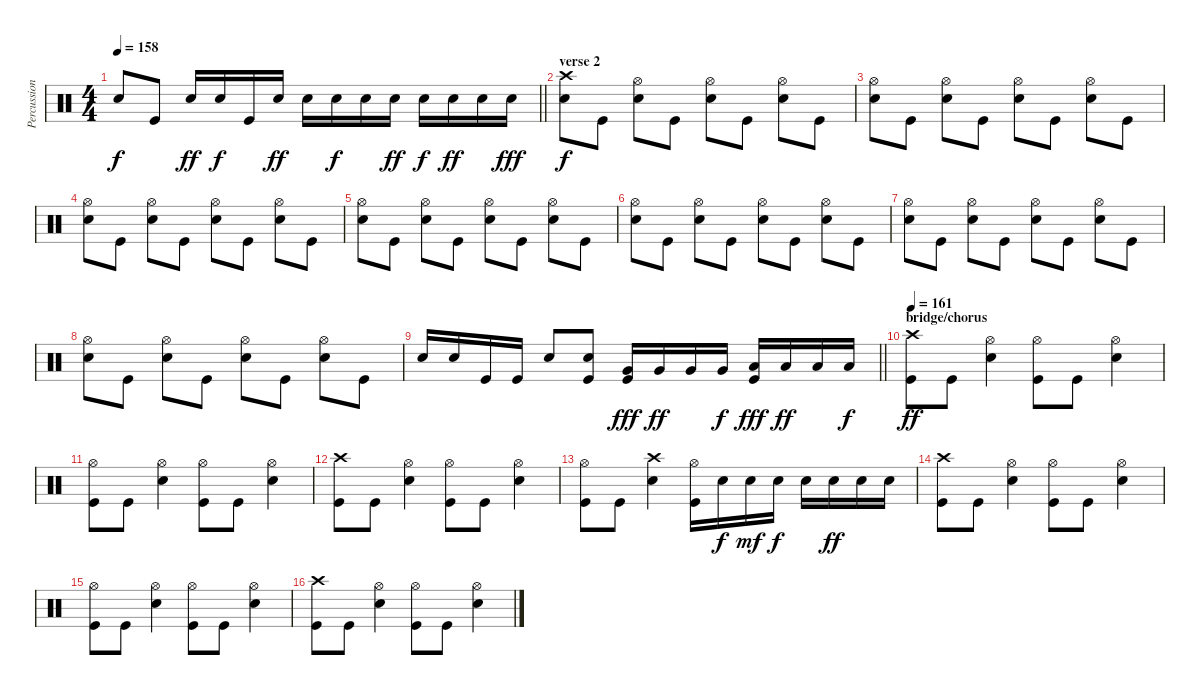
\track ("Percussion" "Percussion") {instrument percussion}
\staff {score}
\articulation defaults
\ts (4 4)
\tempo 158
\clef neutral
\barLineRight lightlight
\ks c "Snare (hit) 2".8{dy f} "Kick (hit)".8 "Snare (hit) 2".16{dy ff} "Snare (hit) 2".16{dy f} "Kick (hit)".16 "Snare (hit) 2".16{dy ff} "Snare (hit) 2".16 "Snare (hit) 2".16{dy f} "Snare (hit) 2".16 "Snare (hit) 2".16{dy ff} "Snare (hit) 2".16{dy f} "Snare (hit) 2".16{dy ff} "Snare (hit) 2".16 "Snare (hit) 2".16{dy fff}
|
\section ("" "verse 2")
("Crash high (hit)" "Snare (hit) 2").8{dy f} "Kick (hit)".8 ("Hi-Hat (open)" "Snare (hit) 2").8 "Kick (hit)".8 ("Hi-Hat (open)" "Snare (hit) 2").8 "Kick (hit)".8 ("Hi-Hat (open)" "Snare (hit) 2").8 "Kick (hit)".8 |
("Hi-Hat (open)" "Snare (hit) 2").8 "Kick (hit)".8 ("Hi-Hat (open)" "Snare (hit) 2").8 "Kick (hit)".8 ("Hi-Hat (open)" "Snare (hit) 2").8 "Kick (hit)".8 ("Hi-Hat (open)" "Snare (hit) 2").8 "Kick (hit)".8 |
("Hi-Hat (open)" "Snare (hit) 2").8 "Kick (hit)".8 ("Hi-Hat (open)" "Snare (hit) 2").8 "Kick (hit)".8 ("Hi-Hat (open)" "Snare (hit) 2").8 "Kick (hit)".8 ("Hi-Hat (open)" "Snare (hit) 2").8 "Kick (hit)".8 |
("Hi-Hat (open)" "Snare (hit) 2").8 "Kick (hit)".8 ("Hi-Hat (open)" "Snare (hit) 2").8 "Kick (hit)".8 ("Hi-Hat (open)" "Snare (hit) 2").8 "Kick (hit)".8 ("Hi-Hat (open)" "Snare (hit) 2").8 "Kick (hit)".8 |
("Hi-Hat (open)" "Snare (hit) 2").8 "Kick (hit)".8 ("Hi-Hat (open)" "Snare (hit) 2").8 "Kick (hit)".8 ("Hi-Hat (open)" "Snare (hit) 2").8 "Kick (hit)".8 ("Hi-Hat (open)" "Snare (hit) 2").8 "Kick (hit)".8 |
("Hi-Hat (open)" "Snare (hit) 2").8 "Kick (hit)".8 ("Hi-Hat (open)" "Snare (hit) 2").8 "Kick (hit)".8 ("Hi-Hat (open)" "Snare (hit) 2").8 "Kick (hit)".8 ("Hi-Hat (open)" "Snare (hit) 2").8 "Kick (hit)".8 |
("Hi-Hat (open)" "Snare (hit) 2").8 "Kick (hit)".8 ("Hi-Hat (open)" "Snare (hit) 2").8 "Kick (hit)".8 ("Hi-Hat (open)" "Snare (hit) 2").8 "Kick (hit)".8 ("Hi-Hat (open)" "Snare (hit) 2").8 "Kick (hit)".8 |
\barLineRight lightlight "Snare (hit) 2".16 "Snare (hit) 2".16 "Kick (hit)".16 "Kick (hit)".16 "Snare (hit) 2".8
("Snare (hit) 2" "Kick (hit)").8 ("Very Low Tom (hit)" "Kick (hit)").16{dy fff} "Very Low Tom (hit)".16{dy ff} "Very Low Tom (hit)".16 "Very Low Tom (hit)".16{dy f} ("Low Floor Tom (hit)" "Kick (hit)").16{dy fff} "Low Floor Tom (hit)".16{dy ff} "Low Floor Tom (hit)".16 "Low Floor Tom (hit)".16{dy f} |
\section ("" "bridge/chorus")
\tempo 161
("Crash high (hit)" "Kick (hit)").8{dy ff} "Kick (hit)".8 ("Hi-Hat (open)" "Snare (hit) 2").4 ("Hi-Hat (open)" "Kick (hit)").8 "Kick (hit)".8 ("Hi-Hat (open)" "Snare (hit) 2").4 |
("Hi-Hat (open)" "Kick (hit)").8 "Kick (hit)".8 ("Hi-Hat (open)" "Snare (hit) 2").4 ("Hi-Hat (open)" "Kick (hit)").8 "Kick (hit)".8 ("Hi-Hat (open)" "Snare (hit) 2").4 |
("Crash high (hit)" "Kick (hit)").8 "Kick (hit)".8 ("Hi-Hat (open)" "Snare (hit) 2").4 ("Hi-Hat (open)" "Kick (hit)").8 "Kick (hit)".8 ("Hi-Hat (open)" "Snare (hit) 2").4 |
("Hi-Hat (open)" "Kick (hit)").8 "Kick (hit)".8 ("Crash high (hit)" "Snare (hit) 2").4 ("Hi-Hat (open)" "Kick (hit)").16 "Snare (hit) 2".16{dy f} "Snare (hit) 2".16{dy mf} "Snare (hit) 2".16{dy f} "Snare (hit) 2".16 "Snare (hit) 2".16{dy ff} "Snare (hit) 2".16 "Snare (hit) 2".16 |
("Crash high (hit)" "Kick (hit)").8 "Kick (hit)".8 ("Hi-Hat (open)" "Snare (hit) 2").4 ("Hi-Hat (open)" "Kick (hit)").8 "Kick (hit)".8 ("Hi-Hat (open)" "Snare (hit) 2").4 |
("Hi-Hat (open)" "Kick (hit)").8 "Kick (hit)".8 ("Hi-Hat (open)" "Snare (hit) 2").4 ("Hi-Hat (open)" "Kick (hit)").8 "Kick (hit)".8 ("Hi-Hat (open)" "Snare (hit) 2").4 |
("Crash high (hit)" "Kick (hit)").8 "Kick (hit)".8 ("Hi-Hat (open)" "Snare (hit) 2").4 ("Hi-Hat (open)" "Kick (hit)").8 "Kick (hit)".8 ("Hi-Hat (open)" "Snare (hit) 2").4
